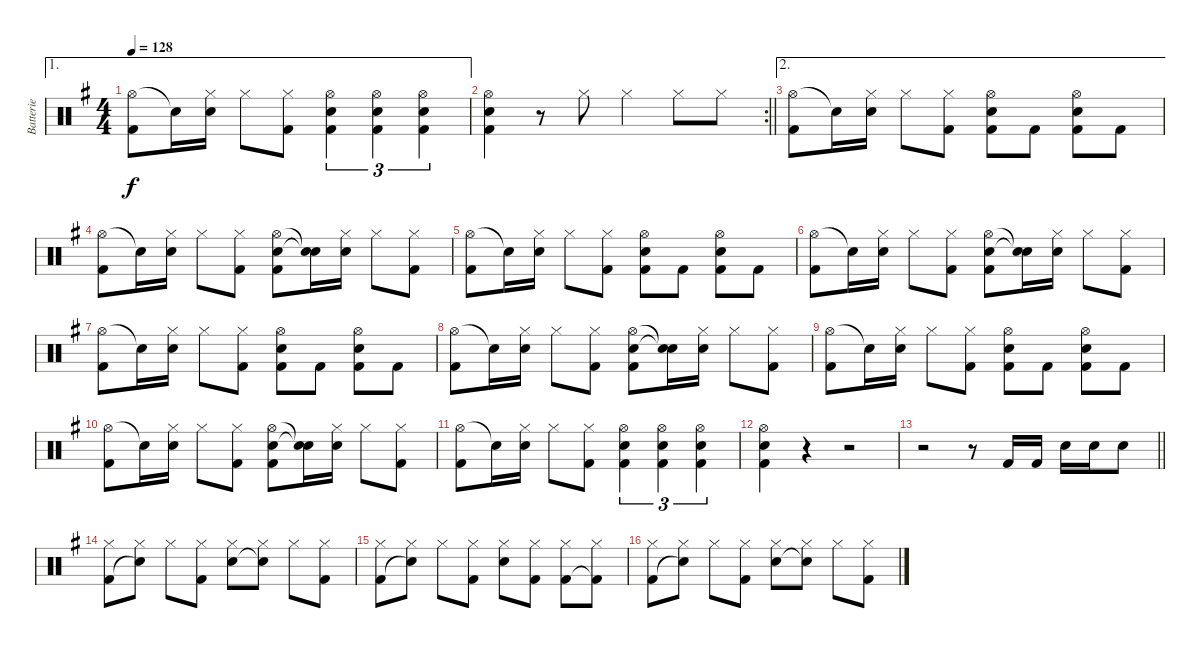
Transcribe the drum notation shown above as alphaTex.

\track ("Batterie" "Batterie") {instrument percussion}
\staff {score}
\articulation defaults
\ae 1
\ts (4 4)
\tempo 128
\clef neutral
\ks g
("Hi-Hat (open)" "Kick (hit) 2").8{dy f} "Snare (hit)"{t}.16 ("Hi-Hat (closed)" "Snare (hit) 2").16 "Hi-Hat (closed)".8 ("Hi-Hat (closed)" "Kick (hit) 2").8 ("Hi-Hat (open)" "Snare (hit) 2" "Kick (hit) 2").4{tu (3 2)} ("Hi-Hat (open)" "Snare (hit) 2" "Kick (hit) 2").4{tu (3 2)} ("Hi-Hat (open)" "Snare (hit) 2" "Kick (hit) 2").4{tu (3 2)} |
\rc 2
\barLineRight lightlight
("Hi-Hat (open)" "Snare (hit) 2" "Kick (hit) 2").4 r.8 "Hi-Hat (closed)".8 "Hi-Hat (closed)".4 "Hi-Hat (closed)".8 "Hi-Hat (closed)".8 |
\ae 2
("Hi-Hat (open)" "Kick (hit) 2").8 "Snare (hit)"{t}.16 ("Hi-Hat (closed)" "Snare (hit) 2").16 "Hi-Hat (closed)".8 ("Hi-Hat (closed)" "Kick (hit) 2").8 ("Hi-Hat (open)" "Snare (hit) 2" "Kick (hit) 2").8 "Kick (hit) 2".8 ("Hi-Hat (open)" "Snare (hit) 2" "Kick (hit) 2").8 "Kick (hit) 2".8 |
("Hi-Hat (open)" "Kick (hit) 2").8 "Snare (hit)"{t}.16 ("Hi-Hat (closed)" "Snare (hit) 2").16 "Hi-Hat (closed)".8 ("Hi-Hat (closed)" "Kick (hit) 2").8 ("Hi-Hat (open)" "Snare (hit) 2" "Kick (hit) 2").8 ("Snare (hit)"{t} "Snare (hit)"{t}).16 ("Hi-Hat (closed)" "Snare (hit) 2").16 "Hi-Hat (closed)".8 ("Hi-Hat (closed)" "Kick (hit) 2").8 |
("Hi-Hat (open)" "Kick (hit) 2").8 "Snare (hit)"{t}.16 ("Hi-Hat (closed)" "Snare (hit) 2").16 "Hi-Hat (closed)".8 ("Hi-Hat (closed)" "Kick (hit) 2").8 ("Hi-Hat (open)" "Snare (hit) 2" "Kick (hit) 2").8 "Kick (hit) 2".8 ("Hi-Hat (open)" "Snare (hit) 2" "Kick (hit) 2").8 "Kick (hit) 2".8 |
("Hi-Hat (open)" "Kick (hit) 2").8 "Snare (hit)"{t}.16 ("Hi-Hat (closed)" "Snare (hit) 2").16 "Hi-Hat (closed)".8 ("Hi-Hat (closed)" "Kick (hit) 2").8 ("Hi-Hat (open)" "Snare (hit) 2" "Kick (hit) 2").8 ("Snare (hit)"{t} "Snare (hit)"{t}).16 ("Hi-Hat (closed)" "Snare (hit) 2").16 "Hi-Hat (closed)".8 ("Hi-Hat (closed)" "Kick (hit) 2").8 |
("Hi-Hat (open)" "Kick (hit) 2").8 "Snare (hit)"{t}.16 ("Hi-Hat (closed)" "Snare (hit) 2").16 "Hi-Hat (closed)".8 ("Hi-Hat (closed)" "Kick (hit) 2").8 ("Hi-Hat (open)" "Snare (hit) 2" "Kick (hit) 2").8 "Kick (hit) 2".8 ("Hi-Hat (open)" "Snare (hit) 2" "Kick (hit) 2").8 "Kick (hit) 2".8 |
("Hi-Hat (open)" "Kick (hit) 2").8 "Snare (hit)"{t}.16 ("Hi-Hat (closed)" "Snare (hit) 2").16 "Hi-Hat (closed)".8 ("Hi-Hat (closed)" "Kick (hit) 2").8 ("Hi-Hat (open)" "Snare (hit) 2" "Kick (hit) 2").8 ("Snare (hit)"{t} "Snare (hit)"{t}).16 ("Hi-Hat (closed)" "Snare (hit) 2").16 "Hi-Hat (closed)".8 ("Hi-Hat (closed)" "Kick (hit) 2").8 |
("Hi-Hat (open)" "Kick (hit) 2").8 "Snare (hit)"{t}.16 ("Hi-Hat (closed)" "Snare (hit) 2").16 "Hi-Hat (closed)".8 ("Hi-Hat (closed)" "Kick (hit) 2").8 ("Hi-Hat (open)" "Snare (hit) 2" "Kick (hit) 2").8 "Kick (hit) 2".8 ("Hi-Hat (open)" "Snare (hit) 2" "Kick (hit) 2").8 "Kick (hit) 2".8 |
("Hi-Hat (open)" "Kick (hit) 2").8 "Snare (hit)"{t}.16 ("Hi-Hat (closed)" "Snare (hit) 2").16 "Hi-Hat (closed)".8 ("Hi-Hat (closed)" "Kick (hit) 2").8 ("Hi-Hat (open)" "Snare (hit) 2" "Kick (hit) 2").8 ("Snare (hit)"{t} "Snare (hit)"{t}).16 ("Hi-Hat (closed)" "Snare (hit) 2").16 "Hi-Hat (closed)".8 ("Hi-Hat (closed)" "Kick (hit) 2").8 |
("Hi-Hat (open)" "Kick (hit) 2").8 "Snare (hit)"{t}.16 ("Hi-Hat (closed)" "Snare (hit) 2").16 "Hi-Hat (closed)".8 ("Hi-Hat (closed)" "Kick (hit) 2").8 ("Hi-Hat (open)" "Snare (hit) 2" "Kick (hit) 2").4{tu (3 2)} ("Hi-Hat (open)" "Snare (hit) 2" "Kick (hit) 2").4{tu (3 2)} ("Hi-Hat (open)" "Snare (hit) 2" "Kick (hit) 2").4{tu (3 2)} |
("Hi-Hat (open)" "Snare (hit) 2" "Kick (hit) 2").4 r.4 r.2 |
\barLineRight lightlight
r.2 r.8 "Kick (hit) 2".16 "Kick (hit) 2".16 "Snare (hit) 2".16 "Snare (hit) 2".16 "Snare (hit) 2".8 |
("Hi-Hat (closed)" "Kick (hit) 2").8 ("Hi-Hat (closed)" "Snare (hit)"{t}).8 "Hi-Hat (closed)".8 ("Hi-Hat (closed)" "Kick (hit) 2").8 ("Hi-Hat (closed)" "Snare (hit) 2").8 ("Hi-Hat (closed)" "Snare (hit)"{t}).8 "Hi-Hat (closed)".8 ("Hi-Hat (closed)" "Kick (hit) 2").8 |
("Hi-Hat (closed)" "Kick (hit) 2").8 ("Hi-Hat (closed)" "Snare (hit)"{t}).8 "Hi-Hat (closed)".8 ("Hi-Hat (closed)" "Kick (hit) 2").8 ("Hi-Hat (closed)" "Snare (hit) 2").8 ("Hi-Hat (closed)" "Kick (hit) 2").8 ("Hi-Hat (closed)" "Kick (hit) 2").8 ("Hi-Hat (closed)" "Kick (hit) 2"{t}).8 |
("Hi-Hat (closed)" "Kick (hit) 2").8 ("Hi-Hat (closed)" "Snare (hit)"{t}).8 "Hi-Hat (closed)".8 ("Hi-Hat (closed)" "Kick (hit) 2").8 ("Hi-Hat (closed)" "Snare (hit) 2").8 ("Hi-Hat (closed)" "Snare (hit)"{t}).8 "Hi-Hat (closed)".8 ("Hi-Hat (closed)" "Kick (hit) 2").8
